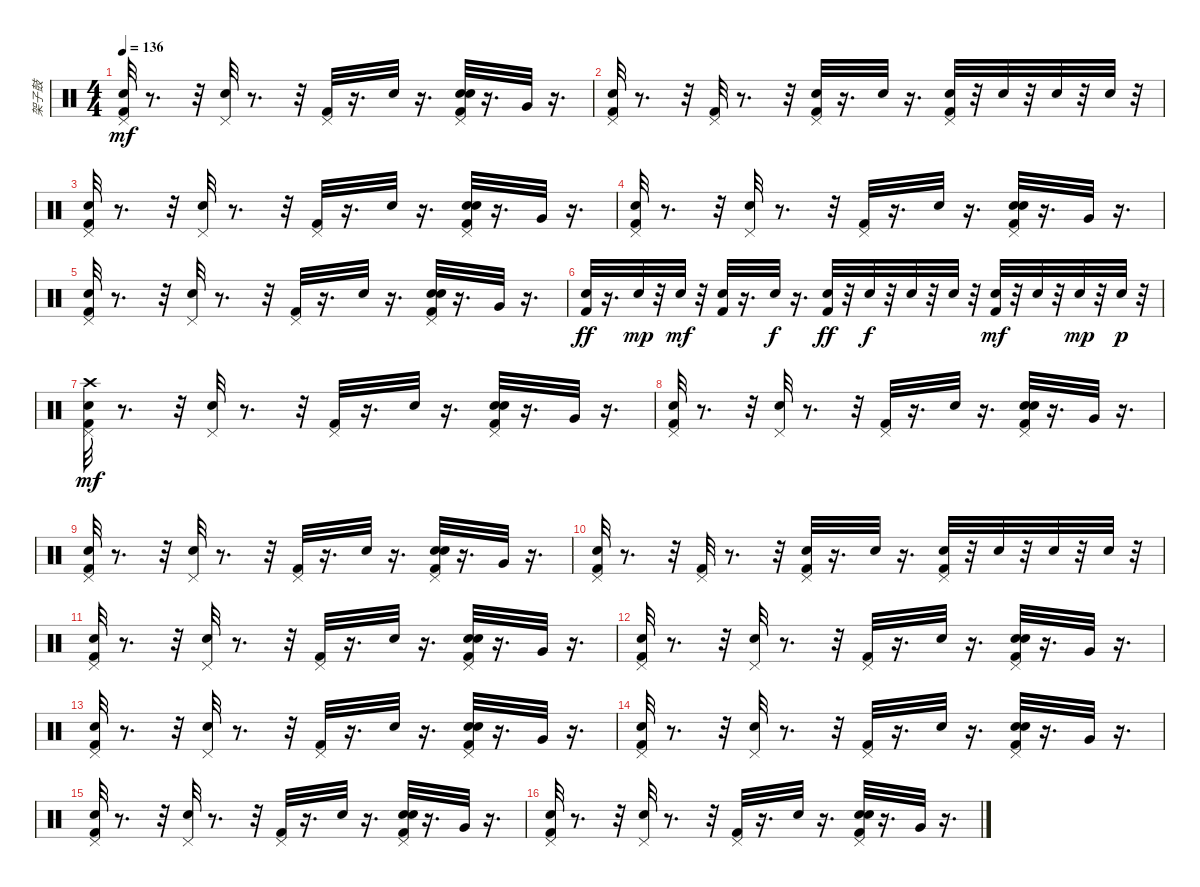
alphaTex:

\track ("架子鼓" "架子鼓") {instrument percussion}
\staff {score}
\articulation defaults
\ts (4 4)
\tempo 136
\clef neutral
\ks c
("Pedal Hi-Hat (hit)" "Kick (hit) 2" "Metronome (bell)").32{dy mf} r.8{d} r.32 ("Pedal Hi-Hat (hit)" "Metronome (bell)").32 r.8{d} r.32 ("Pedal Hi-Hat (hit)" "Kick (hit) 2").32 r.16{d} "Metronome (bell)".32 r.16{d} ("Pedal Hi-Hat (hit)" "Electric Snare (hit)" "Kick (hit) 2" "Metronome (bell)").32 r.16{d} "Very Low Tom (hit)".32 r.16{d} |
("Pedal Hi-Hat (hit)" "Kick (hit) 2" "Metronome (bell)").32 r.8{d} r.32 ("Pedal Hi-Hat (hit)" "Kick (hit) 2").32 r.8{d} r.32 ("Pedal Hi-Hat (hit)" "Kick (hit) 2" "Metronome (bell)").32 r.16{d} "Metronome (bell)".32 r.16{d} ("Pedal Hi-Hat (hit)" "Kick (hit) 2" "Metronome (bell)").32 r.32 "Metronome (bell)".32 r.32 "Metronome (bell)".32 r.32 "Metronome (bell)".32 r.32 |
("Pedal Hi-Hat (hit)" "Kick (hit) 2" "Metronome (bell)").32 r.8{d} r.32 ("Pedal Hi-Hat (hit)" "Metronome (bell)").32 r.8{d} r.32 ("Pedal Hi-Hat (hit)" "Kick (hit) 2").32 r.16{d} "Metronome (bell)".32 r.16{d} ("Pedal Hi-Hat (hit)" "Electric Snare (hit)" "Kick (hit) 2" "Metronome (bell)").32 r.16{d} "Very Low Tom (hit)".32 r.16{d} |
("Pedal Hi-Hat (hit)" "Kick (hit) 2" "Metronome (bell)").32 r.8{d} r.32 ("Pedal Hi-Hat (hit)" "Metronome (bell)").32 r.8{d} r.32 ("Pedal Hi-Hat (hit)" "Kick (hit) 2").32 r.16{d} "Metronome (bell)".32 r.16{d} ("Pedal Hi-Hat (hit)" "Electric Snare (hit)" "Kick (hit) 2" "Metronome (bell)").32 r.16{d} "Very Low Tom (hit)".32 r.16{d} |
("Pedal Hi-Hat (hit)" "Kick (hit) 2" "Metronome (bell)").32 r.8{d} r.32 ("Pedal Hi-Hat (hit)" "Metronome (bell)").32 r.8{d} r.32 ("Pedal Hi-Hat (hit)" "Kick (hit) 2").32 r.16{d} "Metronome (bell)".32 r.16{d} ("Pedal Hi-Hat (hit)" "Electric Snare (hit)" "Kick (hit) 2" "Metronome (bell)").32 r.16{d} "Very Low Tom (hit)".32 r.16{d} |
("Metronome (bell)" "Kick (hit) 2").32{dy ff} r.16{d} "Metronome (bell)".32{dy mp} r.32 "Metronome (bell)".32{dy mf} r.32 ("Metronome (bell)" "Kick (hit) 2").32 r.16{d} "Metronome (bell)".32{dy f} r.16{d} ("Kick (hit) 2" "Metronome (bell)").32{dy ff} r.32 "Metronome (bell)".32{dy f} r.32 "Metronome (bell)".32 r.32 "Metronome (bell)".32 r.32 ("Kick (hit) 2" "Metronome (bell)").32{dy mf} r.32 "Metronome (bell)".32 r.32 "Metronome (bell)".32{dy mp} r.32 "Metronome (bell)".32{dy p} r.32 |
("Pedal Hi-Hat (hit)" "Kick (hit) 2" "Metronome (bell)" "Crash high (hit)").32{dy mf} r.8{d} r.32 ("Pedal Hi-Hat (hit)" "Metronome (bell)").32 r.8{d} r.32 ("Pedal Hi-Hat (hit)" "Kick (hit) 2").32 r.16{d} "Metronome (bell)".32 r.16{d} ("Pedal Hi-Hat (hit)" "Electric Snare (hit)" "Kick (hit) 2" "Metronome (bell)").32 r.16{d} "Very Low Tom (hit)".32 r.16{d} |
("Pedal Hi-Hat (hit)" "Kick (hit) 2" "Metronome (bell)").32 r.8{d} r.32 ("Pedal Hi-Hat (hit)" "Metronome (bell)").32 r.8{d} r.32 ("Pedal Hi-Hat (hit)" "Kick (hit) 2").32 r.16{d} "Metronome (bell)".32 r.16{d} ("Pedal Hi-Hat (hit)" "Electric Snare (hit)" "Kick (hit) 2" "Metronome (bell)").32 r.16{d} "Very Low Tom (hit)".32 r.16{d} |
("Pedal Hi-Hat (hit)" "Kick (hit) 2" "Metronome (bell)").32 r.8{d} r.32 ("Pedal Hi-Hat (hit)" "Metronome (bell)").32 r.8{d} r.32 ("Pedal Hi-Hat (hit)" "Kick (hit) 2").32 r.16{d} "Metronome (bell)".32 r.16{d} ("Pedal Hi-Hat (hit)" "Electric Snare (hit)" "Kick (hit) 2" "Metronome (bell)").32 r.16{d} "Very Low Tom (hit)".32 r.16{d} |
("Pedal Hi-Hat (hit)" "Kick (hit) 2" "Metronome (bell)").32 r.8{d} r.32 ("Pedal Hi-Hat (hit)" "Kick (hit) 2").32 r.8{d} r.32 ("Pedal Hi-Hat (hit)" "Kick (hit) 2" "Metronome (bell)").32 r.16{d} "Metronome (bell)".32 r.16{d} ("Pedal Hi-Hat (hit)" "Kick (hit) 2" "Metronome (bell)").32 r.32 "Metronome (bell)".32 r.32 "Metronome (bell)".32 r.32 "Metronome (bell)".32 r.32 |
("Pedal Hi-Hat (hit)" "Kick (hit) 2" "Metronome (bell)").32 r.8{d} r.32 ("Pedal Hi-Hat (hit)" "Metronome (bell)").32 r.8{d} r.32 ("Pedal Hi-Hat (hit)" "Kick (hit) 2").32 r.16{d} "Metronome (bell)".32 r.16{d} ("Pedal Hi-Hat (hit)" "Electric Snare (hit)" "Kick (hit) 2" "Metronome (bell)").32 r.16{d} "Very Low Tom (hit)".32 r.16{d} |
("Pedal Hi-Hat (hit)" "Kick (hit) 2" "Metronome (bell)").32 r.8{d} r.32 ("Pedal Hi-Hat (hit)" "Metronome (bell)").32 r.8{d} r.32 ("Pedal Hi-Hat (hit)" "Kick (hit) 2").32 r.16{d} "Metronome (bell)".32 r.16{d} ("Pedal Hi-Hat (hit)" "Electric Snare (hit)" "Kick (hit) 2" "Metronome (bell)").32 r.16{d} "Very Low Tom (hit)".32 r.16{d} |
("Pedal Hi-Hat (hit)" "Kick (hit) 2" "Metronome (bell)").32 r.8{d} r.32 ("Pedal Hi-Hat (hit)" "Metronome (bell)").32 r.8{d} r.32 ("Pedal Hi-Hat (hit)" "Kick (hit) 2").32 r.16{d} "Metronome (bell)".32 r.16{d} ("Pedal Hi-Hat (hit)" "Electric Snare (hit)" "Kick (hit) 2" "Metronome (bell)").32 r.16{d} "Very Low Tom (hit)".32 r.16{d} |
("Pedal Hi-Hat (hit)" "Kick (hit) 2" "Metronome (bell)").32 r.8{d} r.32 ("Pedal Hi-Hat (hit)" "Metronome (bell)").32 r.8{d} r.32 ("Pedal Hi-Hat (hit)" "Kick (hit) 2").32 r.16{d} "Metronome (bell)".32 r.16{d} ("Pedal Hi-Hat (hit)" "Electric Snare (hit)" "Kick (hit) 2" "Metronome (bell)").32 r.16{d} "Very Low Tom (hit)".32 r.16{d} |
("Pedal Hi-Hat (hit)" "Kick (hit) 2" "Metronome (bell)").32 r.8{d} r.32 ("Pedal Hi-Hat (hit)" "Metronome (bell)").32 r.8{d} r.32 ("Pedal Hi-Hat (hit)" "Kick (hit) 2").32 r.16{d} "Metronome (bell)".32 r.16{d} ("Pedal Hi-Hat (hit)" "Electric Snare (hit)" "Kick (hit) 2" "Metronome (bell)").32 r.16{d} "Very Low Tom (hit)".32 r.16{d} |
("Pedal Hi-Hat (hit)" "Kick (hit) 2" "Metronome (bell)").32 r.8{d} r.32 ("Pedal Hi-Hat (hit)" "Metronome (bell)").32 r.8{d} r.32 ("Pedal Hi-Hat (hit)" "Kick (hit) 2").32 r.16{d} "Metronome (bell)".32 r.16{d} ("Pedal Hi-Hat (hit)" "Electric Snare (hit)" "Kick (hit) 2" "Metronome (bell)").32 r.16{d} "Very Low Tom (hit)".32 r.16{d}
